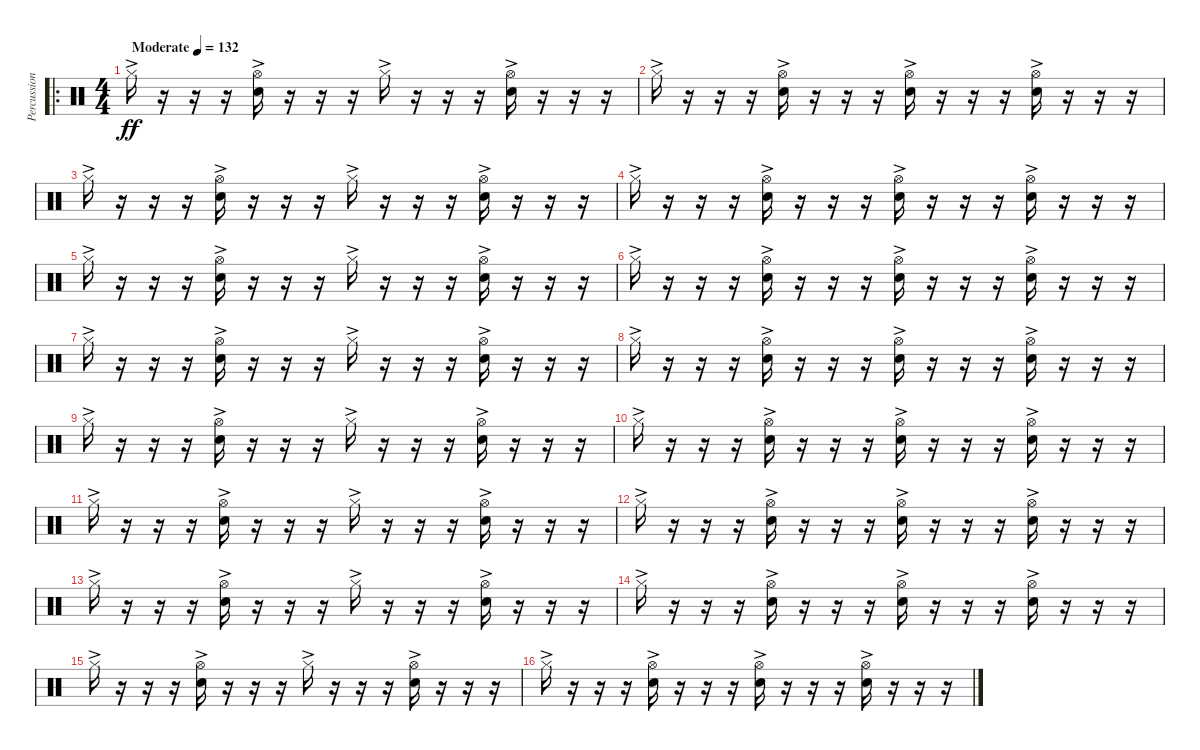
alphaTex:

\track ("Percussion" "Percussion") {instrument percussion}
\staff {score}
\articulation defaults
\ro
\ts (4 4)
\tempo (132 "Moderate")
\clef neutral
\ks c "Hi-Hat (closed)"{ac}.16{dy ff}
r.16 r.16 r.16 ("Hi-Hat (open)"{ac} "Snare (hit) 2"{ac}).16 r.16 r.16 r.16 "Hi-Hat (closed)"{ac}.16 r.16 r.16 r.16 ("Hi-Hat (open)"{ac} "Snare (hit) 2"{ac}).16 r.16 r.16 r.16 |
"Hi-Hat (closed)"{ac}.16 r.16 r.16 r.16 ("Hi-Hat (open)"{ac} "Snare (hit) 2"{ac}).16 r.16 r.16 r.16 ("Hi-Hat (open)"{ac} "Snare (hit) 2"{ac}).16 r.16 r.16 r.16 ("Hi-Hat (open)"{ac} "Snare (hit) 2"{ac}).16 r.16 r.16 r.16 |
"Hi-Hat (closed)"{ac}.16 r.16 r.16 r.16 ("Hi-Hat (open)"{ac} "Snare (hit) 2"{ac}).16 r.16 r.16 r.16 "Hi-Hat (closed)"{ac}.16 r.16 r.16 r.16 ("Hi-Hat (open)"{ac} "Snare (hit) 2"{ac}).16 r.16 r.16 r.16 |
"Hi-Hat (closed)"{ac}.16 r.16 r.16 r.16 ("Hi-Hat (open)"{ac} "Snare (hit) 2"{ac}).16 r.16 r.16 r.16 ("Hi-Hat (open)"{ac} "Snare (hit) 2"{ac}).16 r.16 r.16 r.16 ("Hi-Hat (open)"{ac} "Snare (hit) 2"{ac}).16 r.16 r.16 r.16 |
"Hi-Hat (closed)"{ac}.16 r.16 r.16 r.16 ("Hi-Hat (open)"{ac} "Snare (hit) 2"{ac}).16 r.16 r.16 r.16 "Hi-Hat (closed)"{ac}.16 r.16 r.16 r.16 ("Hi-Hat (open)"{ac} "Snare (hit) 2"{ac}).16 r.16 r.16 r.16 |
"Hi-Hat (closed)"{ac}.16 r.16 r.16 r.16 ("Hi-Hat (open)"{ac} "Snare (hit) 2"{ac}).16 r.16 r.16 r.16 ("Hi-Hat (open)"{ac} "Snare (hit) 2"{ac}).16 r.16 r.16 r.16 ("Hi-Hat (open)"{ac} "Snare (hit) 2"{ac}).16 r.16 r.16 r.16 |
"Hi-Hat (closed)"{ac}.16 r.16 r.16 r.16 ("Hi-Hat (open)"{ac} "Snare (hit) 2"{ac}).16 r.16 r.16 r.16 "Hi-Hat (closed)"{ac}.16 r.16 r.16 r.16 ("Hi-Hat (open)"{ac} "Snare (hit) 2"{ac}).16 r.16 r.16 r.16 |
"Hi-Hat (closed)"{ac}.16 r.16 r.16 r.16 ("Hi-Hat (open)"{ac} "Snare (hit) 2"{ac}).16 r.16 r.16 r.16 ("Hi-Hat (open)"{ac} "Snare (hit) 2"{ac}).16 r.16 r.16 r.16 ("Hi-Hat (open)"{ac} "Snare (hit) 2"{ac}).16 r.16 r.16 r.16 |
"Hi-Hat (closed)"{ac}.16 r.16 r.16 r.16 ("Hi-Hat (open)"{ac} "Snare (hit) 2"{ac}).16 r.16 r.16 r.16 "Hi-Hat (closed)"{ac}.16 r.16 r.16 r.16 ("Hi-Hat (open)"{ac} "Snare (hit) 2"{ac}).16 r.16 r.16 r.16 |
"Hi-Hat (closed)"{ac}.16 r.16 r.16 r.16 ("Hi-Hat (open)"{ac} "Snare (hit) 2"{ac}).16 r.16 r.16 r.16 ("Hi-Hat (open)"{ac} "Snare (hit) 2"{ac}).16 r.16 r.16 r.16 ("Hi-Hat (open)"{ac} "Snare (hit) 2"{ac}).16 r.16 r.16 r.16 |
"Hi-Hat (closed)"{ac}.16 r.16 r.16 r.16 ("Hi-Hat (open)"{ac} "Snare (hit) 2"{ac}).16 r.16 r.16 r.16 "Hi-Hat (closed)"{ac}.16 r.16 r.16 r.16 ("Hi-Hat (open)"{ac} "Snare (hit) 2"{ac}).16 r.16 r.16 r.16 |
"Hi-Hat (closed)"{ac}.16 r.16 r.16 r.16 ("Hi-Hat (open)"{ac} "Snare (hit) 2"{ac}).16 r.16 r.16 r.16 ("Hi-Hat (open)"{ac} "Snare (hit) 2"{ac}).16 r.16 r.16 r.16 ("Hi-Hat (open)"{ac} "Snare (hit) 2"{ac}).16 r.16 r.16 r.16 |
"Hi-Hat (closed)"{ac}.16 r.16 r.16 r.16 ("Hi-Hat (open)"{ac} "Snare (hit) 2"{ac}).16 r.16 r.16 r.16 "Hi-Hat (closed)"{ac}.16 r.16 r.16 r.16 ("Hi-Hat (open)"{ac} "Snare (hit) 2"{ac}).16 r.16 r.16 r.16 |
"Hi-Hat (closed)"{ac}.16 r.16 r.16 r.16 ("Hi-Hat (open)"{ac} "Snare (hit) 2"{ac}).16 r.16 r.16 r.16 ("Hi-Hat (open)"{ac} "Snare (hit) 2"{ac}).16 r.16 r.16 r.16 ("Hi-Hat (open)"{ac} "Snare (hit) 2"{ac}).16 r.16 r.16 r.16 |
"Hi-Hat (closed)"{ac}.16 r.16 r.16 r.16 ("Hi-Hat (open)"{ac} "Snare (hit) 2"{ac}).16 r.16 r.16 r.16 "Hi-Hat (closed)"{ac}.16 r.16 r.16 r.16 ("Hi-Hat (open)"{ac} "Snare (hit) 2"{ac}).16 r.16 r.16 r.16 |
"Hi-Hat (closed)"{ac}.16 r.16 r.16 r.16 ("Hi-Hat (open)"{ac} "Snare (hit) 2"{ac}).16 r.16 r.16 r.16 ("Hi-Hat (open)"{ac} "Snare (hit) 2"{ac}).16 r.16 r.16 r.16 ("Hi-Hat (open)"{ac} "Snare (hit) 2"{ac}).16 r.16 r.16 r.16
